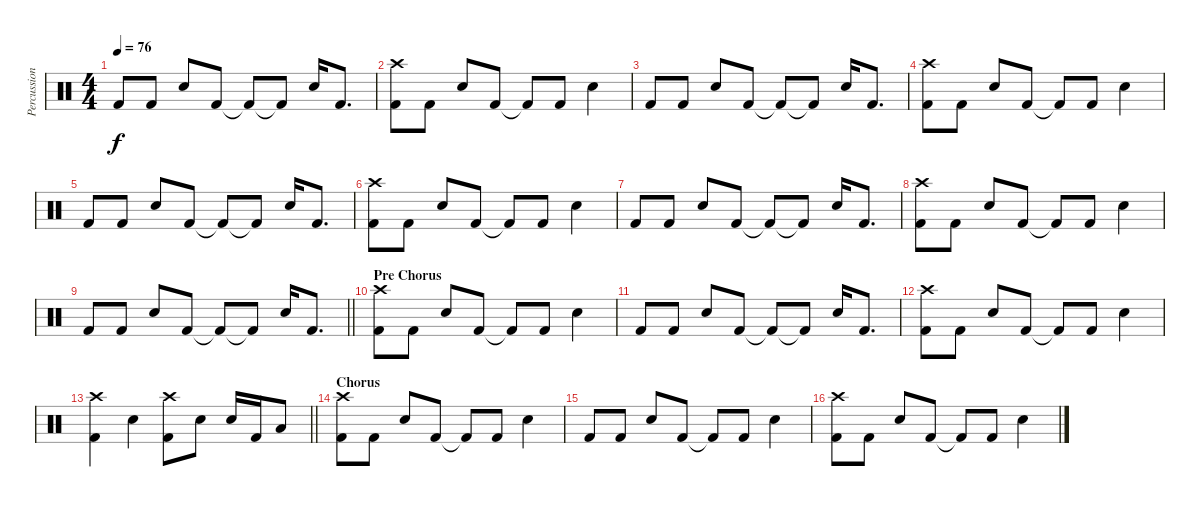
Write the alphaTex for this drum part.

\track ("Percussion" "Percussion") {instrument percussion}
\staff {score}
\articulation defaults
\ts (4 4)
\tempo 76
\clef neutral
\ks c "Kick (hit) 2".8{dy f} "Kick (hit) 2".8 "Electric Snare (hit)".8 "Kick (hit) 2".8 "Kick (hit) 2"{t}.8 "Kick (hit) 2"{t}.8 "Electric Snare (hit)".16 "Kick (hit) 2".8{d}
|
("Kick (hit) 2" "Crash high (hit)").8 "Kick (hit) 2".8 "Electric Snare (hit)".8 "Kick (hit) 2".8 "Kick (hit) 2"{t}.8 "Kick (hit) 2".8 "Electric Snare (hit)".4 |
"Kick (hit) 2".8 "Kick (hit) 2".8 "Electric Snare (hit)".8 "Kick (hit) 2".8 "Kick (hit) 2"{t}.8 "Kick (hit) 2"{t}.8 "Electric Snare (hit)".16 "Kick (hit) 2".8{d} |
("Kick (hit) 2" "Crash high (hit)").8 "Kick (hit) 2".8 "Electric Snare (hit)".8 "Kick (hit) 2".8 "Kick (hit) 2"{t}.8 "Kick (hit) 2".8 "Electric Snare (hit)".4 |
"Kick (hit) 2".8 "Kick (hit) 2".8 "Electric Snare (hit)".8 "Kick (hit) 2".8 "Kick (hit) 2"{t}.8 "Kick (hit) 2"{t}.8 "Electric Snare (hit)".16 "Kick (hit) 2".8{d} |
("Kick (hit) 2" "Crash high (hit)").8 "Kick (hit) 2".8 "Electric Snare (hit)".8 "Kick (hit) 2".8 "Kick (hit) 2"{t}.8 "Kick (hit) 2".8 "Electric Snare (hit)".4 |
"Kick (hit) 2".8 "Kick (hit) 2".8 "Electric Snare (hit)".8 "Kick (hit) 2".8 "Kick (hit) 2"{t}.8 "Kick (hit) 2"{t}.8 "Electric Snare (hit)".16 "Kick (hit) 2".8{d} |
("Kick (hit) 2" "Crash high (hit)").8 "Kick (hit) 2".8 "Electric Snare (hit)".8 "Kick (hit) 2".8 "Kick (hit) 2"{t}.8 "Kick (hit) 2".8 "Electric Snare (hit)".4 |
\barLineRight lightlight "Kick (hit) 2".8 "Kick (hit) 2".8 "Electric Snare (hit)".8 "Kick (hit) 2".8 "Kick (hit) 2"{t}.8 "Kick (hit) 2"{t}.8 "Electric Snare (hit)".16 "Kick (hit) 2".8{d}
|
\section ("" "Pre Chorus")
("Kick (hit) 2" "Crash high (hit)").8 "Kick (hit) 2".8 "Electric Snare (hit)".8 "Kick (hit) 2".8 "Kick (hit) 2"{t}.8 "Kick (hit) 2".8 "Electric Snare (hit)".4 |
"Kick (hit) 2".8 "Kick (hit) 2".8 "Electric Snare (hit)".8 "Kick (hit) 2".8 "Kick (hit) 2"{t}.8 "Kick (hit) 2"{t}.8 "Electric Snare (hit)".16 "Kick (hit) 2".8{d} |
("Kick (hit) 2" "Crash high (hit)").8 "Kick (hit) 2".8 "Electric Snare (hit)".8 "Kick (hit) 2".8 "Kick (hit) 2"{t}.8 "Kick (hit) 2".8 "Electric Snare (hit)".4 |
\barLineRight lightlight
("Kick (hit) 2" "Crash high (hit)").4 "Electric Snare (hit)".4 ("Kick (hit) 2" "Crash high (hit)").8 "Electric Snare (hit)".8 "Electric Snare (hit)".16 "Kick (hit) 2".16 "Low Floor Tom (hit)".8 |
\section ("" "Chorus")
("Kick (hit) 2" "Crash high (hit)").8 "Kick (hit) 2".8 "Electric Snare (hit)".8 "Kick (hit) 2".8 "Kick (hit) 2"{t}.8 "Kick (hit) 2".8 "Electric Snare (hit)".4 |
"Kick (hit) 2".8 "Kick (hit) 2".8 "Electric Snare (hit)".8 "Kick (hit) 2".8 "Kick (hit) 2"{t}.8 "Kick (hit) 2".8 "Electric Snare (hit)".4 |
("Kick (hit) 2" "Crash high (hit)").8 "Kick (hit) 2".8 "Electric Snare (hit)".8 "Kick (hit) 2".8 "Kick (hit) 2"{t}.8 "Kick (hit) 2".8 "Electric Snare (hit)".4
